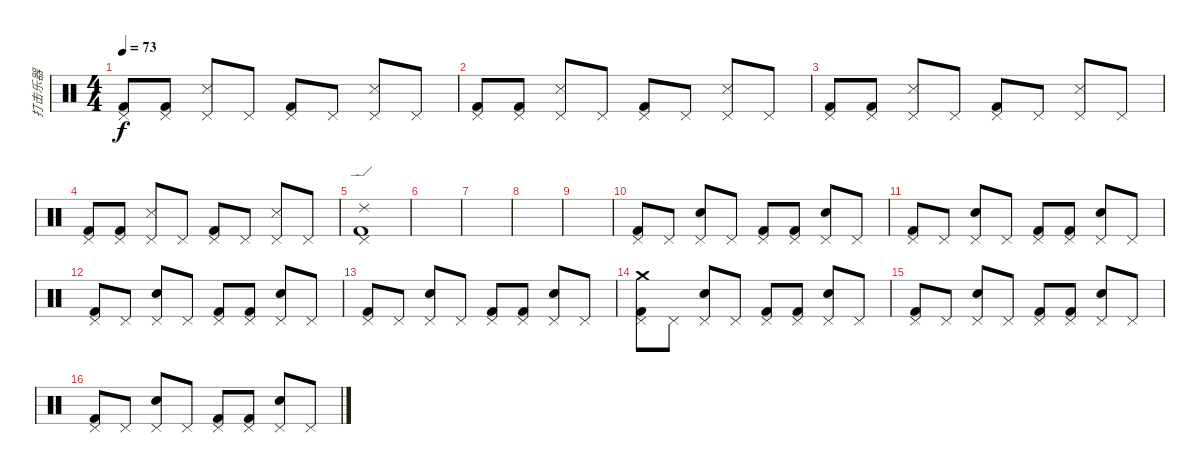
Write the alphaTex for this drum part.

\track ("打击乐器" "打击乐器") {instrument percussion}
\staff {score}
\articulation defaults
\ts (4 4)
\tempo 73
\clef neutral
\ks c
("Kick (hit) 2" "Pedal Hi-Hat (hit)").8{dy f} ("Kick (hit) 2" "Pedal Hi-Hat (hit)").8 ("Snare (side stick) 3" "Pedal Hi-Hat (hit)").8 "Pedal Hi-Hat (hit)".8 ("Kick (hit) 2" "Pedal Hi-Hat (hit)").8 "Pedal Hi-Hat (hit)".8 ("Snare (side stick) 3" "Pedal Hi-Hat (hit)").8 "Pedal Hi-Hat (hit)".8 |
("Kick (hit) 2" "Pedal Hi-Hat (hit)").8 ("Kick (hit) 2" "Pedal Hi-Hat (hit)").8 ("Snare (side stick) 3" "Pedal Hi-Hat (hit)").8 "Pedal Hi-Hat (hit)".8 ("Kick (hit) 2" "Pedal Hi-Hat (hit)").8 "Pedal Hi-Hat (hit)".8 ("Snare (side stick) 3" "Pedal Hi-Hat (hit)").8 "Pedal Hi-Hat (hit)".8 |
("Kick (hit) 2" "Pedal Hi-Hat (hit)").8 ("Kick (hit) 2" "Pedal Hi-Hat (hit)").8 ("Snare (side stick) 3" "Pedal Hi-Hat (hit)").8 "Pedal Hi-Hat (hit)".8 ("Kick (hit) 2" "Pedal Hi-Hat (hit)").8 "Pedal Hi-Hat (hit)".8 ("Snare (side stick) 3" "Pedal Hi-Hat (hit)").8 "Pedal Hi-Hat (hit)".8 |
("Kick (hit) 2" "Pedal Hi-Hat (hit)").8 ("Kick (hit) 2" "Pedal Hi-Hat (hit)").8 ("Snare (side stick) 3" "Pedal Hi-Hat (hit)").8 "Pedal Hi-Hat (hit)".8 ("Kick (hit) 2" "Pedal Hi-Hat (hit)").8 "Pedal Hi-Hat (hit)".8 ("Snare (side stick) 3" "Pedal Hi-Hat (hit)").8 "Pedal Hi-Hat (hit)".8 |
("Ride (edge) 2" "Kick (hit) 2" "Pedal Hi-Hat (hit)").1 |
|
|
|
|
("Kick (hit) 2" "Pedal Hi-Hat (hit)").8 "Pedal Hi-Hat (hit)".8 ("Electric Snare (hit)" "Pedal Hi-Hat (hit)").8 "Pedal Hi-Hat (hit)".8 ("Kick (hit) 2" "Pedal Hi-Hat (hit)").8 ("Kick (hit) 2" "Pedal Hi-Hat (hit)").8 ("Electric Snare (hit)" "Pedal Hi-Hat (hit)").8 "Pedal Hi-Hat (hit)".8 |
("Kick (hit) 2" "Pedal Hi-Hat (hit)").8 "Pedal Hi-Hat (hit)".8 ("Electric Snare (hit)" "Pedal Hi-Hat (hit)").8 "Pedal Hi-Hat (hit)".8 ("Kick (hit) 2" "Pedal Hi-Hat (hit)").8 ("Kick (hit) 2" "Pedal Hi-Hat (hit)").8 ("Electric Snare (hit)" "Pedal Hi-Hat (hit)").8 "Pedal Hi-Hat (hit)".8 |
("Kick (hit) 2" "Pedal Hi-Hat (hit)").8 "Pedal Hi-Hat (hit)".8 ("Electric Snare (hit)" "Pedal Hi-Hat (hit)").8 "Pedal Hi-Hat (hit)".8 ("Kick (hit) 2" "Pedal Hi-Hat (hit)").8 ("Kick (hit) 2" "Pedal Hi-Hat (hit)").8 ("Electric Snare (hit)" "Pedal Hi-Hat (hit)").8 "Pedal Hi-Hat (hit)".8 |
("Kick (hit) 2" "Pedal Hi-Hat (hit)").8 "Pedal Hi-Hat (hit)".8 ("Electric Snare (hit)" "Pedal Hi-Hat (hit)").8 "Pedal Hi-Hat (hit)".8 ("Kick (hit) 2" "Pedal Hi-Hat (hit)").8 ("Kick (hit) 2" "Pedal Hi-Hat (hit)").8 ("Electric Snare (hit)" "Pedal Hi-Hat (hit)").8 "Pedal Hi-Hat (hit)".8 |
("Crash medium (hit)" "Kick (hit) 2" "Pedal Hi-Hat (hit)").8 "Pedal Hi-Hat (hit)".8 ("Electric Snare (hit)" "Pedal Hi-Hat (hit)").8 "Pedal Hi-Hat (hit)".8 ("Kick (hit) 2" "Pedal Hi-Hat (hit)").8 ("Kick (hit) 2" "Pedal Hi-Hat (hit)").8 ("Electric Snare (hit)" "Pedal Hi-Hat (hit)").8 "Pedal Hi-Hat (hit)".8 |
("Kick (hit) 2" "Pedal Hi-Hat (hit)").8 "Pedal Hi-Hat (hit)".8 ("Electric Snare (hit)" "Pedal Hi-Hat (hit)").8 "Pedal Hi-Hat (hit)".8 ("Kick (hit) 2" "Pedal Hi-Hat (hit)").8 ("Kick (hit) 2" "Pedal Hi-Hat (hit)").8 ("Electric Snare (hit)" "Pedal Hi-Hat (hit)").8 "Pedal Hi-Hat (hit)".8 |
("Kick (hit) 2" "Pedal Hi-Hat (hit)").8 "Pedal Hi-Hat (hit)".8 ("Electric Snare (hit)" "Pedal Hi-Hat (hit)").8 "Pedal Hi-Hat (hit)".8 ("Kick (hit) 2" "Pedal Hi-Hat (hit)").8 ("Kick (hit) 2" "Pedal Hi-Hat (hit)").8 ("Electric Snare (hit)" "Pedal Hi-Hat (hit)").8 "Pedal Hi-Hat (hit)".8
